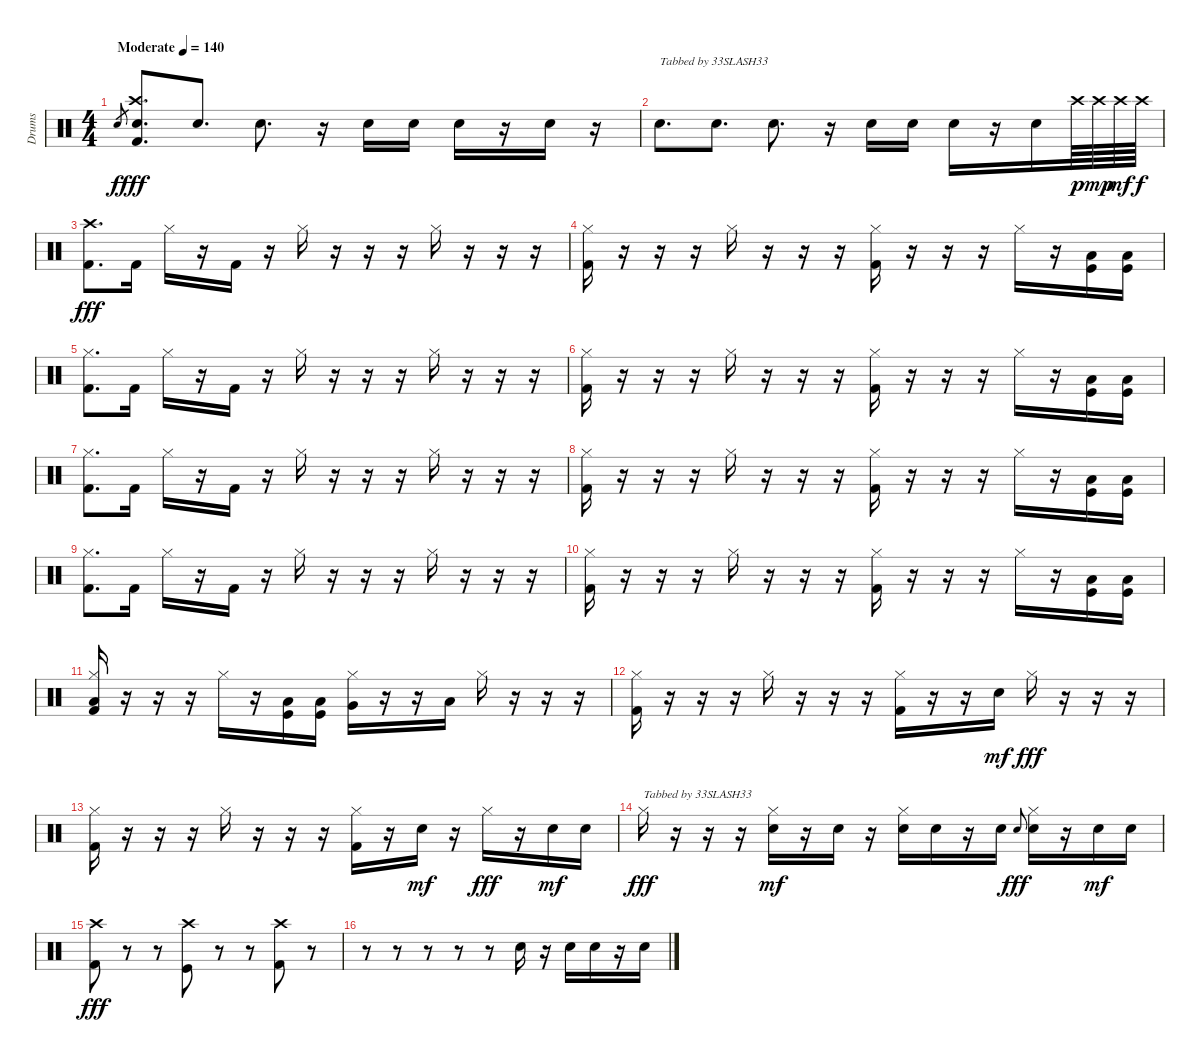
\track ("Drums" "Drums") {instrument percussion}
\staff {score}
\articulation defaults
\ts (4 4)
\tempo (140 "Moderate")
\clef neutral
\ks c "Snare (hit) 2".8{gr dy f}
("Crash high (hit)" "Snare (hit) 2" "Kick (hit) 2").8{d dy fff} "Snare (hit) 2".8{d} "Snare (hit) 2".8{d} r.16 "Snare (hit) 2".16 "Snare (hit) 2".16 "Snare (hit) 2".16 r.16 "Snare (hit) 2".16 r.16 |
"Snare (hit) 2".8{d txt "Tabbed by 33SLASH33"} "Snare (hit) 2".8{d} "Snare (hit) 2".8{d} r.16 "Snare (hit) 2".16 "Snare (hit) 2".16 "Snare (hit) 2".16 r.16 "Snare (hit) 2".16 "Crash high (hit)".64{dy p} "Crash high (hit)".64{dy mp} "Crash high (hit)".64{dy mf} "Crash high (hit)".64{dy f} |
("Crash high (hit)" "Kick (hit) 2").8{d dy fff} "Kick (hit) 2".16 "Hi-Hat (closed)".16 r.16 "Kick (hit) 2".16 r.16 "Hi-Hat (closed)".16 r.16 r.16 r.16 "Hi-Hat (closed)".16 r.16 r.16 r.16 |
("Hi-Hat (closed)" "Kick (hit) 2").16 r.16 r.16 r.16 "Hi-Hat (closed)".16 r.16 r.16 r.16 ("Hi-Hat (closed)" "Kick (hit) 2").16 r.16 r.16 r.16 "Hi-Hat (closed)".16 r.16 ("Low Floor Tom (hit)" "Kick (hit)").16 ("Low Floor Tom (hit)" "Kick (hit)").16 |
("Hi-Hat (closed)" "Kick (hit) 2").8{d} "Kick (hit) 2".16 "Hi-Hat (closed)".16 r.16 "Kick (hit) 2".16 r.16 "Hi-Hat (closed)".16 r.16 r.16 r.16 "Hi-Hat (closed)".16 r.16 r.16 r.16 |
("Hi-Hat (closed)" "Kick (hit) 2").16 r.16 r.16 r.16 "Hi-Hat (closed)".16 r.16 r.16 r.16 ("Hi-Hat (closed)" "Kick (hit) 2").16 r.16 r.16 r.16 "Hi-Hat (closed)".16 r.16 ("Low Floor Tom (hit)" "Kick (hit)").16 ("Low Floor Tom (hit)" "Kick (hit)").16 |
("Hi-Hat (closed)" "Kick (hit) 2").8{d} "Kick (hit) 2".16 "Hi-Hat (closed)".16 r.16 "Kick (hit) 2".16 r.16 "Hi-Hat (closed)".16 r.16 r.16 r.16 "Hi-Hat (closed)".16 r.16 r.16 r.16 |
("Hi-Hat (closed)" "Kick (hit) 2").16 r.16 r.16 r.16 "Hi-Hat (closed)".16 r.16 r.16 r.16 ("Hi-Hat (closed)" "Kick (hit) 2").16 r.16 r.16 r.16 "Hi-Hat (closed)".16 r.16 ("Low Floor Tom (hit)" "Kick (hit)").16 ("Low Floor Tom (hit)" "Kick (hit)").16 |
("Hi-Hat (closed)" "Kick (hit) 2").8{d} "Kick (hit) 2".16 "Hi-Hat (closed)".16 r.16 "Kick (hit) 2".16 r.16 "Hi-Hat (closed)".16 r.16 r.16 r.16 "Hi-Hat (closed)".16 r.16 r.16 r.16 |
("Hi-Hat (closed)" "Kick (hit) 2").16 r.16 r.16 r.16 "Hi-Hat (closed)".16 r.16 r.16 r.16 ("Hi-Hat (closed)" "Kick (hit) 2").16 r.16 r.16 r.16 "Hi-Hat (closed)".16 r.16 ("Low Floor Tom (hit)" "Kick (hit)").16 ("Low Floor Tom (hit)" "Kick (hit)").16 |
("Hi-Hat (closed)" "Low Floor Tom (hit)" "Kick (hit) 2").16 r.16 r.16 r.16 "Hi-Hat (closed)".16 r.16 ("Low Floor Tom (hit)" "Kick (hit)").16 ("Low Floor Tom (hit)" "Kick (hit)").16 ("Hi-Hat (closed)" "Very Low Tom (hit)").16 r.16 r.16 "Low Tom (hit)".16 "Hi-Hat (closed)".16 r.16 r.16 r.16 |
("Hi-Hat (closed)" "Kick (hit) 2").16 r.16 r.16 r.16 "Hi-Hat (closed)".16 r.16 r.16 r.16 ("Hi-Hat (closed)" "Kick (hit) 2").16 r.16 r.16 "Electric Snare (hit)".16{dy mf} "Hi-Hat (closed)".16{dy fff} r.16 r.16 r.16 |
("Hi-Hat (closed)" "Kick (hit) 2").16 r.16 r.16 r.16 "Hi-Hat (closed)".16 r.16 r.16 r.16 ("Hi-Hat (closed)" "Kick (hit) 2").16 r.16 "Electric Snare (hit)".16{dy mf} r.16 "Hi-Hat (closed)".16{dy fff} r.16 "Electric Snare (hit)".16{dy mf} "Electric Snare (hit)".16 |
"Hi-Hat (closed)".16{txt "Tabbed by 33SLASH33" dy fff} r.16 r.16 r.16 ("Hi-Hat (closed)" "Electric Snare (hit)").16{dy mf} r.16 "Electric Snare (hit)".16 r.16 ("Hi-Hat (closed)" "Electric Snare (hit)").16 "Electric Snare (hit)".16 r.16 "Electric Snare (hit)".16 "Snare (hit) 2".8{gr onbeat dy fff} ("Hi-Hat (closed)" "Snare (hit) 2").16 r.16 "Electric Snare (hit)".16{dy mf} "Electric Snare (hit)".16 |
("Crash high (hit)" "Kick (hit) 2").8{dy fff} r.8 r.8 ("Crash high (hit)" "Kick (hit)").8 r.8 r.8 ("Crash high (hit)" "Kick (hit) 2").8 r.8 |
r.8 r.8 r.8 r.8 r.8 "Snare (hit) 2".16 r.16 "Snare (hit) 2".16 "Snare (hit) 2".16 r.16 "Snare (hit) 2".16
